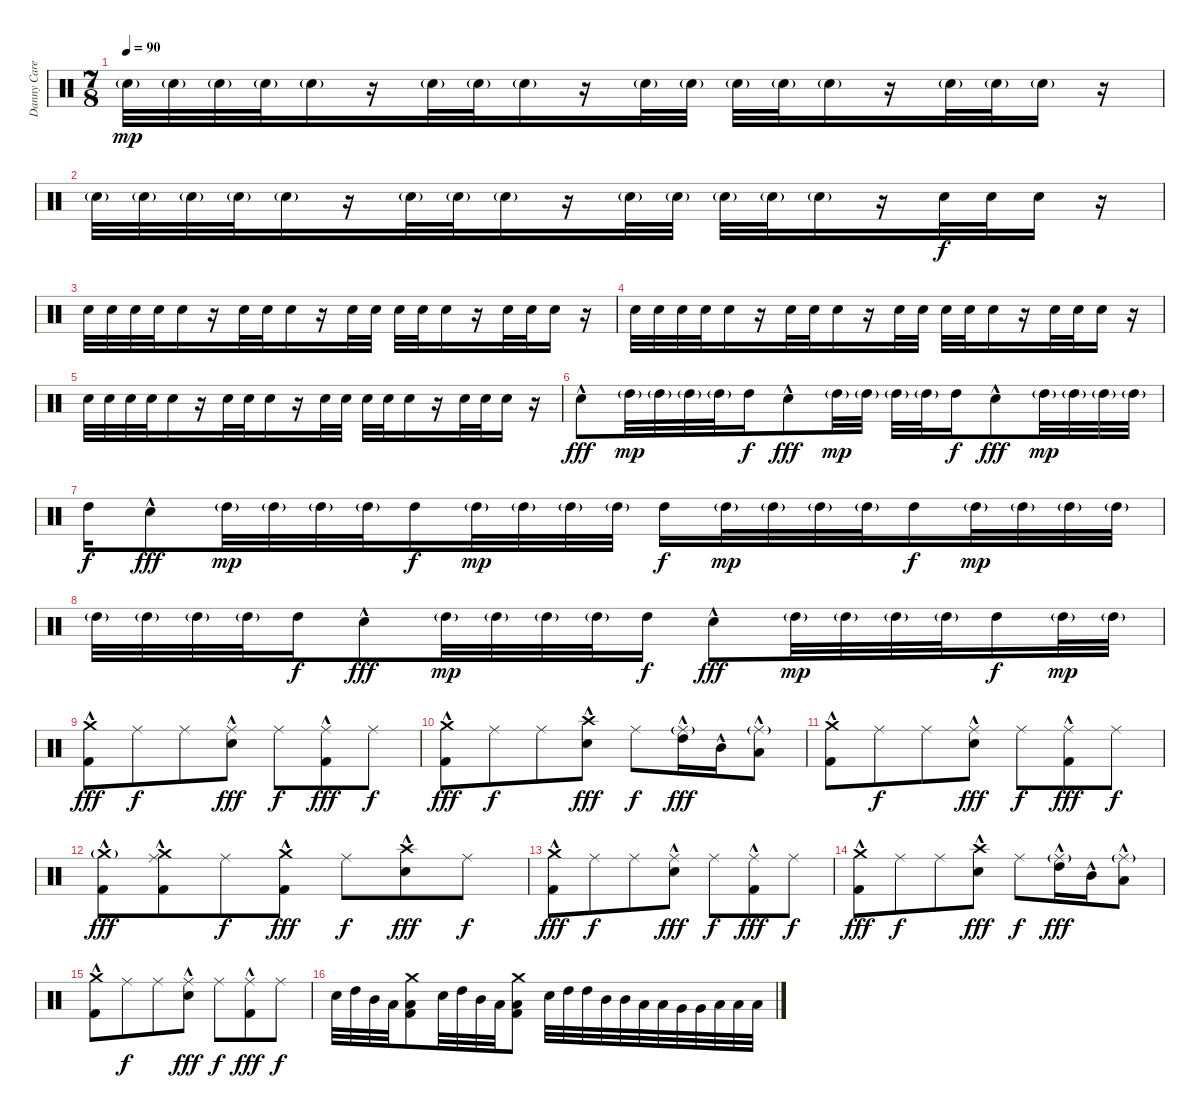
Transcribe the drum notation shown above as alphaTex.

\track ("Danny Carey" "Danny Care") {instrument percussion}
\staff {score}
\articulation defaults
\ts (7 8)
\tempo 90
\clef neutral
\ks c "Electric Snare (hit)"{g}.32{dy mp} "Electric Snare (hit)"{g}.32 "Electric Snare (hit)"{g}.32 "Electric Snare (hit)"{g}.32 "Electric Snare (hit)"{g}.16
r.16 "Electric Snare (hit)"{g}.32 "Electric Snare (hit)"{g}.32 "Electric Snare (hit)"{g}.16 r.16 "Electric Snare (hit)"{g}.32 "Electric Snare (hit)"{g}.32 "Electric Snare (hit)"{g}.32 "Electric Snare (hit)"{g}.32 "Electric Snare (hit)"{g}.16 r.16 "Electric Snare (hit)"{g}.32 "Electric Snare (hit)"{g}.32 "Electric Snare (hit)"{g}.16 r.16 |
"Electric Snare (hit)"{g}.32 "Electric Snare (hit)"{g}.32 "Electric Snare (hit)"{g}.32 "Electric Snare (hit)"{g}.32 "Electric Snare (hit)"{g}.16 r.16 "Electric Snare (hit)"{g}.32 "Electric Snare (hit)"{g}.32 "Electric Snare (hit)"{g}.16 r.16 "Electric Snare (hit)"{g}.32 "Electric Snare (hit)"{g}.32 "Electric Snare (hit)"{g}.32 "Electric Snare (hit)"{g}.32 "Electric Snare (hit)"{g}.16 r.16 "Electric Snare (hit)".32{dy f} "Electric Snare (hit)".32 "Electric Snare (hit)".16 r.16 |
"Electric Snare (hit)".32 "Electric Snare (hit)".32 "Electric Snare (hit)".32 "Electric Snare (hit)".32 "Electric Snare (hit)".16 r.16 "Electric Snare (hit)".32 "Electric Snare (hit)".32 "Electric Snare (hit)".16 r.16 "Electric Snare (hit)".32 "Electric Snare (hit)".32 "Electric Snare (hit)".32 "Electric Snare (hit)".32 "Electric Snare (hit)".16 r.16 "Electric Snare (hit)".32 "Electric Snare (hit)".32 "Electric Snare (hit)".16 r.16 |
"Electric Snare (hit)".32 "Electric Snare (hit)".32 "Electric Snare (hit)".32 "Electric Snare (hit)".32 "Electric Snare (hit)".16 r.16 "Electric Snare (hit)".32 "Electric Snare (hit)".32 "Electric Snare (hit)".16 r.16 "Electric Snare (hit)".32 "Electric Snare (hit)".32 "Electric Snare (hit)".32 "Electric Snare (hit)".32 "Electric Snare (hit)".16 r.16 "Electric Snare (hit)".32 "Electric Snare (hit)".32 "Electric Snare (hit)".16 r.16 |
"Electric Snare (hit)".32 "Electric Snare (hit)".32 "Electric Snare (hit)".32 "Electric Snare (hit)".32 "Electric Snare (hit)".16 r.16 "Electric Snare (hit)".32 "Electric Snare (hit)".32 "Electric Snare (hit)".16 r.16 "Electric Snare (hit)".32 "Electric Snare (hit)".32 "Electric Snare (hit)".32 "Electric Snare (hit)".32 "Electric Snare (hit)".16 r.16 "Electric Snare (hit)".32 "Electric Snare (hit)".32 "Electric Snare (hit)".16 r.16 |
"Electric Snare (hit)"{hac}.8{dy fff} "High Tom (hit)"{g}.32{dy mp} "High Tom (hit)"{g}.32 "High Tom (hit)"{g}.32 "High Tom (hit)"{g}.32 "High Tom (hit)".16{dy f} "Electric Snare (hit)"{hac}.8{dy fff} "High Tom (hit)"{g}.32{dy mp} "High Tom (hit)"{g}.32 "High Tom (hit)"{g}.32 "High Tom (hit)"{g}.32 "High Tom (hit)".16{dy f} "Electric Snare (hit)"{hac}.8{dy fff} "High Tom (hit)"{g}.32{dy mp} "High Tom (hit)"{g}.32 "High Tom (hit)"{g}.32 "High Tom (hit)"{g}.32 |
"High Tom (hit)".16{dy f} "Electric Snare (hit)"{hac}.8{dy fff} "High Tom (hit)"{g}.32{dy mp} "High Tom (hit)"{g}.32 "High Tom (hit)"{g}.32 "High Tom (hit)"{g}.32 "High Tom (hit)".16{dy f} "High Tom (hit)"{g}.32{dy mp} "High Tom (hit)"{g}.32 "High Tom (hit)"{g}.32 "High Tom (hit)"{g}.32 "High Tom (hit)".16{dy f} "High Tom (hit)"{g}.32{dy mp} "High Tom (hit)"{g}.32 "High Tom (hit)"{g}.32 "High Tom (hit)"{g}.32 "High Tom (hit)".16{dy f} "High Tom (hit)"{g}.32{dy mp} "High Tom (hit)"{g}.32 "High Tom (hit)"{g}.32 "High Tom (hit)"{g}.32 |
"High Tom (hit)"{g}.32 "High Tom (hit)"{g}.32 "High Tom (hit)"{g}.32 "High Tom (hit)"{g}.32 "High Tom (hit)".16{dy f} "Electric Snare (hit)"{hac}.8{dy fff} "High Tom (hit)"{g}.32{dy mp} "High Tom (hit)"{g}.32 "High Tom (hit)"{g}.32 "High Tom (hit)"{g}.32 "High Tom (hit)".16{dy f} "Electric Snare (hit)"{hac}.8{dy fff} "High Tom (hit)"{g}.32{dy mp} "High Tom (hit)"{g}.32 "High Tom (hit)"{g}.32 "High Tom (hit)"{g}.32 "High Tom (hit)".16{dy f} "High Tom (hit)"{g}.32{dy mp} "High Tom (hit)"{g}.32 |
("Crash medium (hit)" "Kick (hit) 2"{hac}).8{dy fff} "Ride (middle)".8{dy f} "Ride (middle)".8 ("Ride (middle)" "Electric Snare (hit)"{hac}).8{dy fff} "Ride (middle)".8{dy f} ("Ride (middle)" "Kick (hit) 2"{hac}).8{dy fff} "Ride (middle)".8{dy f} |
("Crash medium (hit)" "Kick (hit) 2"{hac}).8{dy fff} "Ride (middle)".8{dy f} "Ride (middle)".8 ("Crash high (hit)" "Electric Snare (hit)"{hac}).8{dy fff} "Ride (middle)".8{dy f} ("Ride (middle)"{g} "High Tom (hit)"{hac}).16{dy fff} "Mid Tom (hit)"{hac}.16 ("Ride (middle)"{g} "Low Tom (hit)"{hac}).8 |
("Crash medium (hit)" "Kick (hit) 2"{hac}).8 "Ride (middle)".8{dy f} "Ride (middle)".8 ("Ride (middle)" "Electric Snare (hit)"{hac}).8{dy fff} "Ride (middle)".8{dy f} ("Ride (middle)" "Kick (hit) 2"{hac}).8{dy fff} "Ride (middle)".8{dy f} |
("Crash medium (hit)"{g} "Kick (hit) 2"{hac}).8{dy fff} ("Crash medium (hit)" "Ride (middle)" "Kick (hit) 2"{hac}).8 "Ride (middle)".8{dy f} ("Crash medium (hit)" "Kick (hit) 2"{hac}).8{dy fff} "Ride (middle)".8{dy f} ("Crash high (hit)" "Electric Snare (hit)"{hac}).8{dy fff} "Ride (middle)".8{dy f} |
("Crash medium (hit)" "Kick (hit) 2"{hac}).8{dy fff} "Ride (middle)".8{dy f} "Ride (middle)".8 ("Ride (middle)" "Electric Snare (hit)"{hac}).8{dy fff} "Ride (middle)".8{dy f} ("Ride (middle)" "Kick (hit) 2"{hac}).8{dy fff} "Ride (middle)".8{dy f} |
("Crash medium (hit)" "Kick (hit) 2"{hac}).8{dy fff} "Ride (middle)".8{dy f} "Ride (middle)".8 ("Crash high (hit)" "Electric Snare (hit)"{hac}).8{dy fff} "Ride (middle)".8{dy f} ("Ride (middle)"{g} "High Tom (hit)"{hac}).16{dy fff} "Mid Tom (hit)"{hac}.16 ("Ride (middle)"{g} "Low Tom (hit)"{hac}).8 |
("Crash medium (hit)" "Kick (hit) 2"{hac}).8 "Ride (middle)".8{dy f} "Ride (middle)".8 ("Ride (middle)" "Electric Snare (hit)"{hac}).8{dy fff} "Ride (middle)".8{dy f} ("Ride (middle)" "Kick (hit) 2"{hac}).8{dy fff} "Ride (middle)".8{dy f} |
"Electric Snare (hit)".32 "High Tom (hit)".32 "Mid Tom (hit)".32 "Low Tom (hit)".32 ("Crash medium (hit)" "Low Tom (hit)" "Kick (hit) 2").8 "Electric Snare (hit)".32 "High Tom (hit)".32 "Mid Tom (hit)".32 "Low Tom (hit)".32 ("Crash medium (hit)" "Low Tom (hit)" "Kick (hit) 2").8 "Electric Snare (hit)".32 "High Tom (hit)".32 "High Tom (hit)".32 "Mid Tom (hit)".32 "Mid Tom (hit)".32 "Low Tom (hit)".32 "Low Tom (hit)".32 "Very Low Tom (hit)".32 "Very Low Tom (hit)".32 "Low Floor Tom (hit)".32 "Low Floor Tom (hit)".32 "Low Floor Tom (hit)".32
